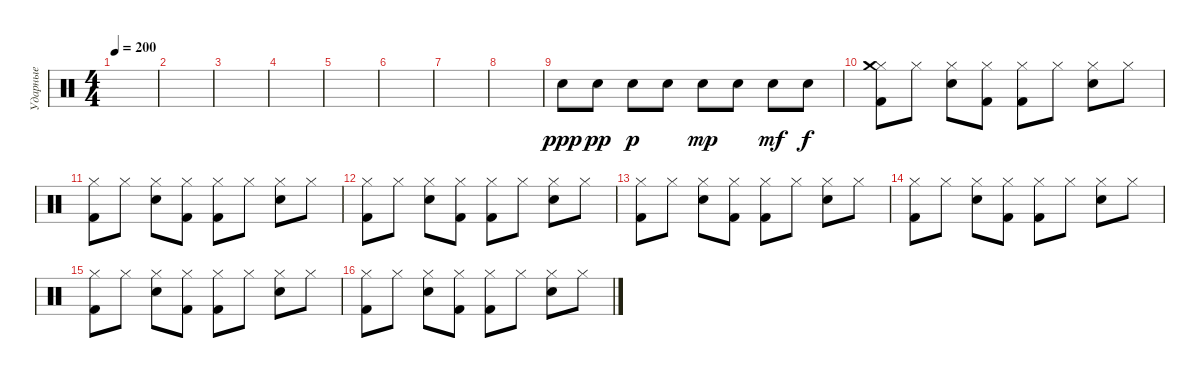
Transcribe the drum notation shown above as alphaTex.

\track ("Ударные" "Ударные") {instrument percussion}
\staff {score}
\articulation defaults
\ts (4 4)
\tempo 200
\clef neutral
\ks c
|
|
|
|
|
|
|
|
"Electric Snare (hit)".8{dy ppp} "Electric Snare (hit)".8{dy pp} "Electric Snare (hit)".8{dy p} "Electric Snare (hit)".8 "Electric Snare (hit)".8{dy mp} "Electric Snare (hit)".8 "Electric Snare (hit)".8{dy mf} "Electric Snare (hit)".8{dy f} |
("Kick (hit) 2" "Hi-Hat (closed)" "Crash medium (hit)").8 "Hi-Hat (closed)".8 ("Electric Snare (hit)" "Hi-Hat (closed)").8 ("Kick (hit) 2" "Hi-Hat (closed)").8 ("Kick (hit) 2" "Hi-Hat (closed)").8 "Hi-Hat (closed)".8 ("Electric Snare (hit)" "Hi-Hat (closed)").8 "Hi-Hat (closed)".8 |
("Kick (hit) 2" "Hi-Hat (closed)").8 "Hi-Hat (closed)".8 ("Electric Snare (hit)" "Hi-Hat (closed)").8 ("Kick (hit) 2" "Hi-Hat (closed)").8 ("Kick (hit) 2" "Hi-Hat (closed)").8 "Hi-Hat (closed)".8 ("Electric Snare (hit)" "Hi-Hat (closed)").8 "Hi-Hat (closed)".8 |
("Kick (hit) 2" "Hi-Hat (closed)").8 "Hi-Hat (closed)".8 ("Electric Snare (hit)" "Hi-Hat (closed)").8 ("Kick (hit) 2" "Hi-Hat (closed)").8 ("Kick (hit) 2" "Hi-Hat (closed)").8 "Hi-Hat (closed)".8 ("Electric Snare (hit)" "Hi-Hat (closed)").8 "Hi-Hat (closed)".8 |
("Kick (hit) 2" "Hi-Hat (closed)").8 "Hi-Hat (closed)".8 ("Electric Snare (hit)" "Hi-Hat (closed)").8 ("Kick (hit) 2" "Hi-Hat (closed)").8 ("Kick (hit) 2" "Hi-Hat (closed)").8 "Hi-Hat (closed)".8 ("Electric Snare (hit)" "Hi-Hat (closed)").8 "Hi-Hat (closed)".8 |
("Kick (hit) 2" "Hi-Hat (closed)").8 "Hi-Hat (closed)".8 ("Electric Snare (hit)" "Hi-Hat (closed)").8 ("Kick (hit) 2" "Hi-Hat (closed)").8 ("Kick (hit) 2" "Hi-Hat (closed)").8 "Hi-Hat (closed)".8 ("Electric Snare (hit)" "Hi-Hat (closed)").8 "Hi-Hat (closed)".8 |
("Kick (hit) 2" "Hi-Hat (closed)").8 "Hi-Hat (closed)".8 ("Electric Snare (hit)" "Hi-Hat (closed)").8 ("Kick (hit) 2" "Hi-Hat (closed)").8 ("Kick (hit) 2" "Hi-Hat (closed)").8 "Hi-Hat (closed)".8 ("Electric Snare (hit)" "Hi-Hat (closed)").8 "Hi-Hat (closed)".8 |
("Kick (hit) 2" "Hi-Hat (closed)").8 "Hi-Hat (closed)".8 ("Electric Snare (hit)" "Hi-Hat (closed)").8 ("Kick (hit) 2" "Hi-Hat (closed)").8 ("Kick (hit) 2" "Hi-Hat (closed)").8 "Hi-Hat (closed)".8 ("Electric Snare (hit)" "Hi-Hat (closed)").8 "Hi-Hat (closed)".8
